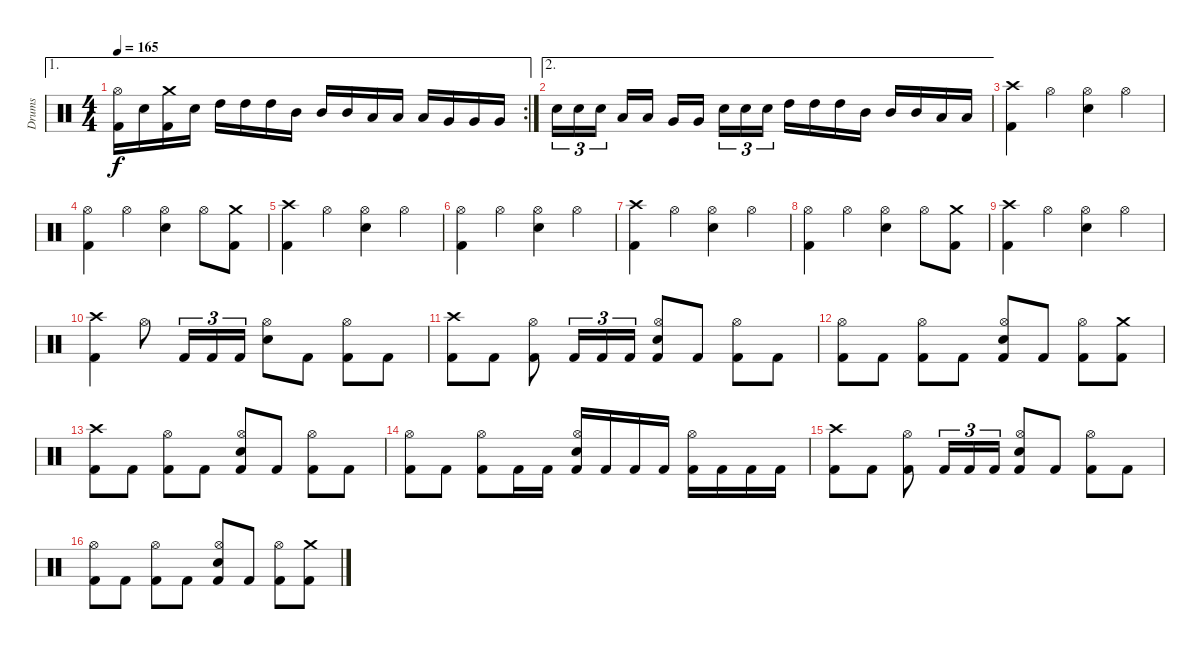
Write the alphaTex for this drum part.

\track ("Drums" "Drums") {instrument percussion}
\staff {score}
\articulation defaults
\ae 1
\rc 2
\ts (4 4)
\tempo 165
\clef neutral
\ks c
("Kick (hit) 2" "Hi-Hat (open)").16{dy f} "Electric Snare (hit)".16 ("Kick (hit) 2" "Crash medium (hit)").16 "Electric Snare (hit)".16 "High Tom (hit)".16 "High Tom (hit)".16 "High Tom (hit)".16 "Mid Tom (hit)".16 "Mid Tom (hit)".16 "Mid Tom (hit)".16 "Low Tom (hit)".16 "Low Tom (hit)".16 "Low Tom (hit)".16 "Very Low Tom (hit)".16 "Very Low Tom (hit)".16 "Very Low Tom (hit)".16 |
\ae 2 "Electric Snare (hit)".16{tu (3 2)} "Electric Snare (hit)".16{tu (3 2)} "Electric Snare (hit)".16{tu (3 2)} "Low Tom (hit)".16 "Low Tom (hit)".16 "Very Low Tom (hit)".16 "Very Low Tom (hit)".16 "Electric Snare (hit)".16{tu (3 2)} "Electric Snare (hit)".16{tu (3 2)} "Electric Snare (hit)".16{tu (3 2)} "High Tom (hit)".16 "High Tom (hit)".16 "High Tom (hit)".16 "Mid Tom (hit)".16 "Mid Tom (hit)".16 "Mid Tom (hit)".16 "Low Tom (hit)".16 "Low Tom (hit)".16
|
("Kick (hit) 2" "Crash high (hit)").4 "Hi-Hat (open)".4 ("Electric Snare (hit)" "Hi-Hat (open)").4 "Hi-Hat (open)".4 |
("Kick (hit) 2" "Hi-Hat (open)").4 "Hi-Hat (open)".4 ("Electric Snare (hit)" "Hi-Hat (open)").4 "Hi-Hat (open)".8 ("Kick (hit) 2" "Crash medium (hit)").8 |
("Kick (hit) 2" "Crash high (hit)").4 "Hi-Hat (open)".4 ("Electric Snare (hit)" "Hi-Hat (open)").4 "Hi-Hat (open)".4 |
("Kick (hit) 2" "Hi-Hat (open)").4 "Hi-Hat (open)".4 ("Electric Snare (hit)" "Hi-Hat (open)").4 "Hi-Hat (open)".4 |
("Kick (hit) 2" "Crash high (hit)").4 "Hi-Hat (open)".4 ("Electric Snare (hit)" "Hi-Hat (open)").4 "Hi-Hat (open)".4 |
("Kick (hit) 2" "Hi-Hat (open)").4 "Hi-Hat (open)".4 ("Electric Snare (hit)" "Hi-Hat (open)").4 "Hi-Hat (open)".8 ("Kick (hit) 2" "Crash medium (hit)").8 |
("Kick (hit) 2" "Crash high (hit)").4 "Hi-Hat (open)".4 ("Electric Snare (hit)" "Hi-Hat (open)").4 "Hi-Hat (open)".4 |
("Kick (hit) 2" "Crash high (hit)").4 "Hi-Hat (open)".8 "Kick (hit) 2".16{tu (3 2)} "Kick (hit) 2".16{tu (3 2)} "Kick (hit) 2".16{tu (3 2)} ("Electric Snare (hit)" "Hi-Hat (open)").8 "Kick (hit) 2".8 ("Kick (hit) 2" "Hi-Hat (open)").8 "Kick (hit) 2".8 |
("Kick (hit) 2" "Crash high (hit)").8 "Kick (hit) 2".8 ("Kick (hit) 2" "Hi-Hat (open)").8 "Kick (hit) 2".16{tu (3 2)} "Kick (hit) 2".16{tu (3 2)} "Kick (hit) 2".16{tu (3 2)} ("Kick (hit) 2" "Electric Snare (hit)" "Hi-Hat (open)").8 "Kick (hit) 2".8 ("Kick (hit) 2" "Hi-Hat (open)").8 "Kick (hit) 2".8 |
("Kick (hit) 2" "Hi-Hat (open)").8 "Kick (hit) 2".8 ("Kick (hit) 2" "Hi-Hat (open)").8 "Kick (hit) 2".8 ("Kick (hit) 2" "Electric Snare (hit)" "Hi-Hat (open)").8 "Kick (hit) 2".8 ("Kick (hit) 2" "Hi-Hat (open)").8 ("Kick (hit) 2" "Crash medium (hit)").8 |
("Kick (hit) 2" "Crash high (hit)").8 "Kick (hit) 2".8 ("Kick (hit) 2" "Hi-Hat (open)").8 "Kick (hit) 2".8 ("Kick (hit) 2" "Electric Snare (hit)" "Hi-Hat (open)").8 "Kick (hit) 2".8 ("Kick (hit) 2" "Hi-Hat (open)").8 "Kick (hit) 2".8 |
("Kick (hit) 2" "Hi-Hat (open)").8 "Kick (hit) 2".8 ("Kick (hit) 2" "Hi-Hat (open)").8 "Kick (hit) 2".16 "Kick (hit) 2".16 ("Kick (hit) 2" "Electric Snare (hit)" "Hi-Hat (open)").16 "Kick (hit) 2".16 "Kick (hit) 2".16 "Kick (hit) 2".16 ("Kick (hit) 2" "Hi-Hat (open)").16 "Kick (hit) 2".16 "Kick (hit) 2".16 "Kick (hit) 2".16 |
("Kick (hit) 2" "Crash high (hit)").8 "Kick (hit) 2".8 ("Kick (hit) 2" "Hi-Hat (open)").8 "Kick (hit) 2".16{tu (3 2)} "Kick (hit) 2".16{tu (3 2)} "Kick (hit) 2".16{tu (3 2)} ("Kick (hit) 2" "Electric Snare (hit)" "Hi-Hat (open)").8 "Kick (hit) 2".8 ("Kick (hit) 2" "Hi-Hat (open)").8 "Kick (hit) 2".8 |
("Kick (hit) 2" "Hi-Hat (open)").8 "Kick (hit) 2".8 ("Kick (hit) 2" "Hi-Hat (open)").8 "Kick (hit) 2".8 ("Kick (hit) 2" "Electric Snare (hit)" "Hi-Hat (open)").8 "Kick (hit) 2".8 ("Kick (hit) 2" "Hi-Hat (open)").8 ("Kick (hit) 2" "Crash medium (hit)").8
